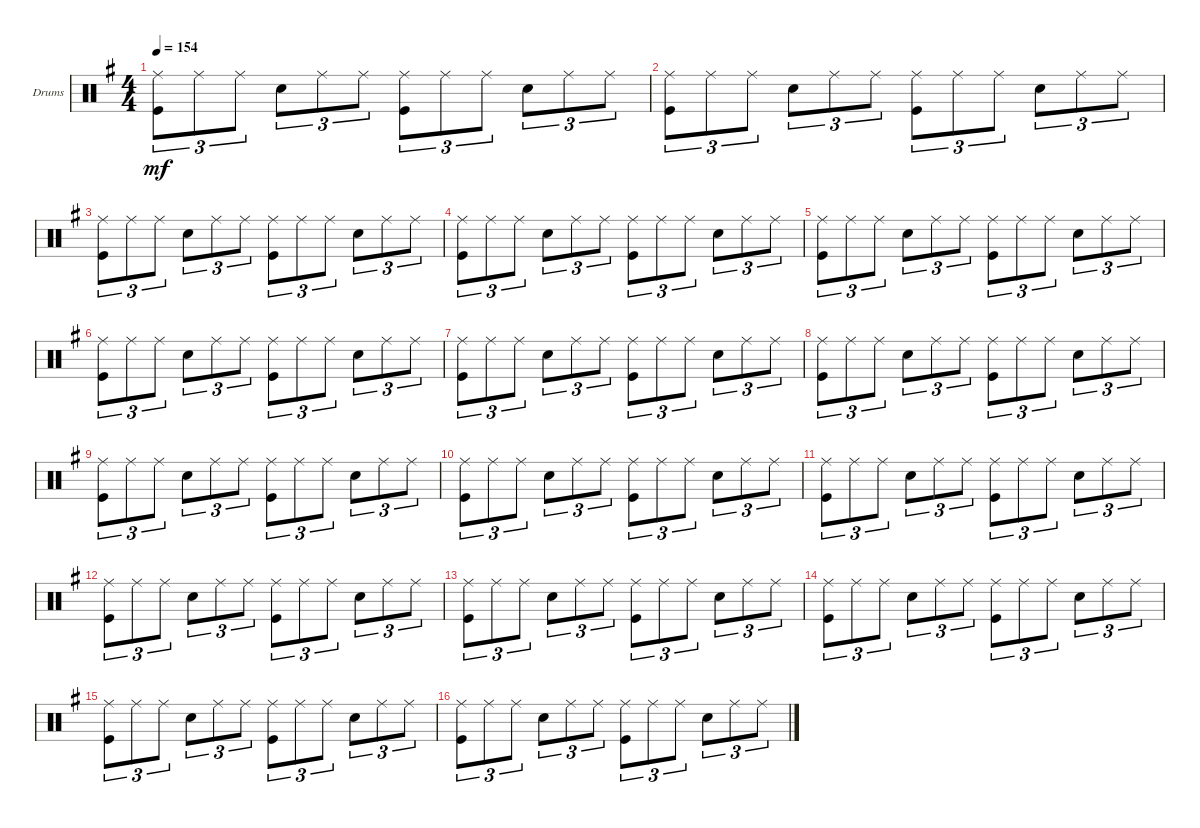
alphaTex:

\defaultSystemsLayout 4
\bracketExtendMode groupsimilarinstruments
\firstSystemTrackNameOrientation horizontal
\otherSystemsTrackNameOrientation horizontal
\track ("Drumkit" "Drums") {instrument percussion}
\staff {score}
\articulation defaults
\ts (4 4)
\tempo 154
\clef neutral
\ks g
("Kick (hit)" "Ride (middle)").8{tu (3 2) dy mf} "Ride (middle)".8{tu (3 2)} "Ride (middle)".8{tu (3 2)} "Snare (hit) 2".8{tu (3 2)} "Ride (middle)".8{tu (3 2)} "Ride (middle)".8{tu (3 2)} ("Ride (middle)" "Kick (hit)").8{tu (3 2)} "Ride (middle)".8{tu (3 2)} "Ride (middle)".8{tu (3 2)} "Snare (hit) 2".8{tu (3 2)} "Ride (middle)".8{tu (3 2)} "Ride (middle)".8{tu (3 2)} |
("Kick (hit)" "Ride (middle)").8{tu (3 2)} "Ride (middle)".8{tu (3 2)} "Ride (middle)".8{tu (3 2)} "Snare (hit) 2".8{tu (3 2)} "Ride (middle)".8{tu (3 2)} "Ride (middle)".8{tu (3 2)} ("Ride (middle)" "Kick (hit)").8{tu (3 2)} "Ride (middle)".8{tu (3 2)} "Ride (middle)".8{tu (3 2)} "Snare (hit) 2".8{tu (3 2)} "Ride (middle)".8{tu (3 2)} "Ride (middle)".8{tu (3 2)} |
("Kick (hit)" "Ride (middle)").8{tu (3 2)} "Ride (middle)".8{tu (3 2)} "Ride (middle)".8{tu (3 2)} "Snare (hit) 2".8{tu (3 2)} "Ride (middle)".8{tu (3 2)} "Ride (middle)".8{tu (3 2)} ("Ride (middle)" "Kick (hit)").8{tu (3 2)} "Ride (middle)".8{tu (3 2)} "Ride (middle)".8{tu (3 2)} "Snare (hit) 2".8{tu (3 2)} "Ride (middle)".8{tu (3 2)} "Ride (middle)".8{tu (3 2)} |
("Kick (hit)" "Ride (middle)").8{tu (3 2)} "Ride (middle)".8{tu (3 2)} "Ride (middle)".8{tu (3 2)} "Snare (hit) 2".8{tu (3 2)} "Ride (middle)".8{tu (3 2)} "Ride (middle)".8{tu (3 2)} ("Ride (middle)" "Kick (hit)").8{tu (3 2)} "Ride (middle)".8{tu (3 2)} "Ride (middle)".8{tu (3 2)} "Snare (hit) 2".8{tu (3 2)} "Ride (middle)".8{tu (3 2)} "Ride (middle)".8{tu (3 2)} |
("Kick (hit)" "Ride (middle)").8{tu (3 2)} "Ride (middle)".8{tu (3 2)} "Ride (middle)".8{tu (3 2)} "Snare (hit) 2".8{tu (3 2)} "Ride (middle)".8{tu (3 2)} "Ride (middle)".8{tu (3 2)} ("Ride (middle)" "Kick (hit)").8{tu (3 2)} "Ride (middle)".8{tu (3 2)} "Ride (middle)".8{tu (3 2)} "Snare (hit) 2".8{tu (3 2)} "Ride (middle)".8{tu (3 2)} "Ride (middle)".8{tu (3 2)} |
("Kick (hit)" "Ride (middle)").8{tu (3 2)} "Ride (middle)".8{tu (3 2)} "Ride (middle)".8{tu (3 2)} "Snare (hit) 2".8{tu (3 2)} "Ride (middle)".8{tu (3 2)} "Ride (middle)".8{tu (3 2)} ("Ride (middle)" "Kick (hit)").8{tu (3 2)} "Ride (middle)".8{tu (3 2)} "Ride (middle)".8{tu (3 2)} "Snare (hit) 2".8{tu (3 2)} "Ride (middle)".8{tu (3 2)} "Ride (middle)".8{tu (3 2)} |
("Kick (hit)" "Ride (middle)").8{tu (3 2)} "Ride (middle)".8{tu (3 2)} "Ride (middle)".8{tu (3 2)} "Snare (hit) 2".8{tu (3 2)} "Ride (middle)".8{tu (3 2)} "Ride (middle)".8{tu (3 2)} ("Ride (middle)" "Kick (hit)").8{tu (3 2)} "Ride (middle)".8{tu (3 2)} "Ride (middle)".8{tu (3 2)} "Snare (hit) 2".8{tu (3 2)} "Ride (middle)".8{tu (3 2)} "Ride (middle)".8{tu (3 2)} |
("Kick (hit)" "Ride (middle)").8{tu (3 2)} "Ride (middle)".8{tu (3 2)} "Ride (middle)".8{tu (3 2)} "Snare (hit) 2".8{tu (3 2)} "Ride (middle)".8{tu (3 2)} "Ride (middle)".8{tu (3 2)} ("Ride (middle)" "Kick (hit)").8{tu (3 2)} "Ride (middle)".8{tu (3 2)} "Ride (middle)".8{tu (3 2)} "Snare (hit) 2".8{tu (3 2)} "Ride (middle)".8{tu (3 2)} "Ride (middle)".8{tu (3 2)} |
("Kick (hit)" "Ride (middle)").8{tu (3 2)} "Ride (middle)".8{tu (3 2)} "Ride (middle)".8{tu (3 2)} "Snare (hit) 2".8{tu (3 2)} "Ride (middle)".8{tu (3 2)} "Ride (middle)".8{tu (3 2)} ("Ride (middle)" "Kick (hit)").8{tu (3 2)} "Ride (middle)".8{tu (3 2)} "Ride (middle)".8{tu (3 2)} "Snare (hit) 2".8{tu (3 2)} "Ride (middle)".8{tu (3 2)} "Ride (middle)".8{tu (3 2)} |
("Kick (hit)" "Ride (middle)").8{tu (3 2)} "Ride (middle)".8{tu (3 2)} "Ride (middle)".8{tu (3 2)} "Snare (hit) 2".8{tu (3 2)} "Ride (middle)".8{tu (3 2)} "Ride (middle)".8{tu (3 2)} ("Ride (middle)" "Kick (hit)").8{tu (3 2)} "Ride (middle)".8{tu (3 2)} "Ride (middle)".8{tu (3 2)} "Snare (hit) 2".8{tu (3 2)} "Ride (middle)".8{tu (3 2)} "Ride (middle)".8{tu (3 2)} |
("Kick (hit)" "Ride (middle)").8{tu (3 2)} "Ride (middle)".8{tu (3 2)} "Ride (middle)".8{tu (3 2)} "Snare (hit) 2".8{tu (3 2)} "Ride (middle)".8{tu (3 2)} "Ride (middle)".8{tu (3 2)} ("Ride (middle)" "Kick (hit)").8{tu (3 2)} "Ride (middle)".8{tu (3 2)} "Ride (middle)".8{tu (3 2)} "Snare (hit) 2".8{tu (3 2)} "Ride (middle)".8{tu (3 2)} "Ride (middle)".8{tu (3 2)} |
("Kick (hit)" "Ride (middle)").8{tu (3 2)} "Ride (middle)".8{tu (3 2)} "Ride (middle)".8{tu (3 2)} "Snare (hit) 2".8{tu (3 2)} "Ride (middle)".8{tu (3 2)} "Ride (middle)".8{tu (3 2)} ("Ride (middle)" "Kick (hit)").8{tu (3 2)} "Ride (middle)".8{tu (3 2)} "Ride (middle)".8{tu (3 2)} "Snare (hit) 2".8{tu (3 2)} "Ride (middle)".8{tu (3 2)} "Ride (middle)".8{tu (3 2)} |
("Kick (hit)" "Ride (middle)").8{tu (3 2)} "Ride (middle)".8{tu (3 2)} "Ride (middle)".8{tu (3 2)} "Snare (hit) 2".8{tu (3 2)} "Ride (middle)".8{tu (3 2)} "Ride (middle)".8{tu (3 2)} ("Ride (middle)" "Kick (hit)").8{tu (3 2)} "Ride (middle)".8{tu (3 2)} "Ride (middle)".8{tu (3 2)} "Snare (hit) 2".8{tu (3 2)} "Ride (middle)".8{tu (3 2)} "Ride (middle)".8{tu (3 2)} |
("Kick (hit)" "Ride (middle)").8{tu (3 2)} "Ride (middle)".8{tu (3 2)} "Ride (middle)".8{tu (3 2)} "Snare (hit) 2".8{tu (3 2)} "Ride (middle)".8{tu (3 2)} "Ride (middle)".8{tu (3 2)} ("Ride (middle)" "Kick (hit)").8{tu (3 2)} "Ride (middle)".8{tu (3 2)} "Ride (middle)".8{tu (3 2)} "Snare (hit) 2".8{tu (3 2)} "Ride (middle)".8{tu (3 2)} "Ride (middle)".8{tu (3 2)} |
("Kick (hit)" "Ride (middle)").8{tu (3 2)} "Ride (middle)".8{tu (3 2)} "Ride (middle)".8{tu (3 2)} "Snare (hit) 2".8{tu (3 2)} "Ride (middle)".8{tu (3 2)} "Ride (middle)".8{tu (3 2)} ("Ride (middle)" "Kick (hit)").8{tu (3 2)} "Ride (middle)".8{tu (3 2)} "Ride (middle)".8{tu (3 2)} "Snare (hit) 2".8{tu (3 2)} "Ride (middle)".8{tu (3 2)} "Ride (middle)".8{tu (3 2)} |
("Kick (hit)" "Ride (middle)").8{tu (3 2)} "Ride (middle)".8{tu (3 2)} "Ride (middle)".8{tu (3 2)} "Snare (hit) 2".8{tu (3 2)} "Ride (middle)".8{tu (3 2)} "Ride (middle)".8{tu (3 2)} ("Ride (middle)" "Kick (hit)").8{tu (3 2)} "Ride (middle)".8{tu (3 2)} "Ride (middle)".8{tu (3 2)} "Snare (hit) 2".8{tu (3 2)} "Ride (middle)".8{tu (3 2)} "Ride (middle)".8{tu (3 2)}
